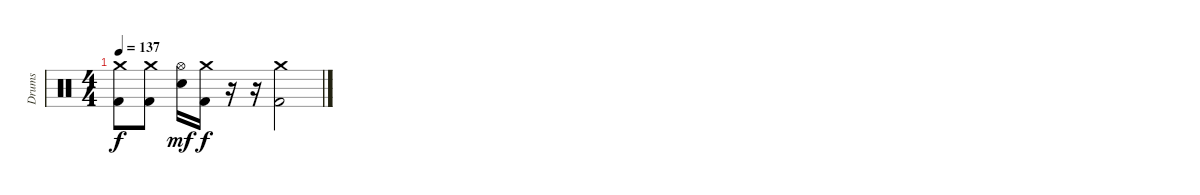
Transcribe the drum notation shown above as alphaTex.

\track ("Drums" "Drums") {instrument percussion}
\staff {score}
\articulation defaults
\ts (4 4)
\tempo 137
\clef neutral
\ks c
("Crash medium (hit)" "Kick (hit) 2").8{dy f} ("Crash medium (hit)" "Kick (hit) 2").8 ("Hi-Hat (open)" "Snare (hit) 2").16{dy mf} ("Crash medium (hit)" "Kick (hit) 2").16{dy f} r.16 r.16 ("Crash medium (hit)" "Kick (hit) 2").2
